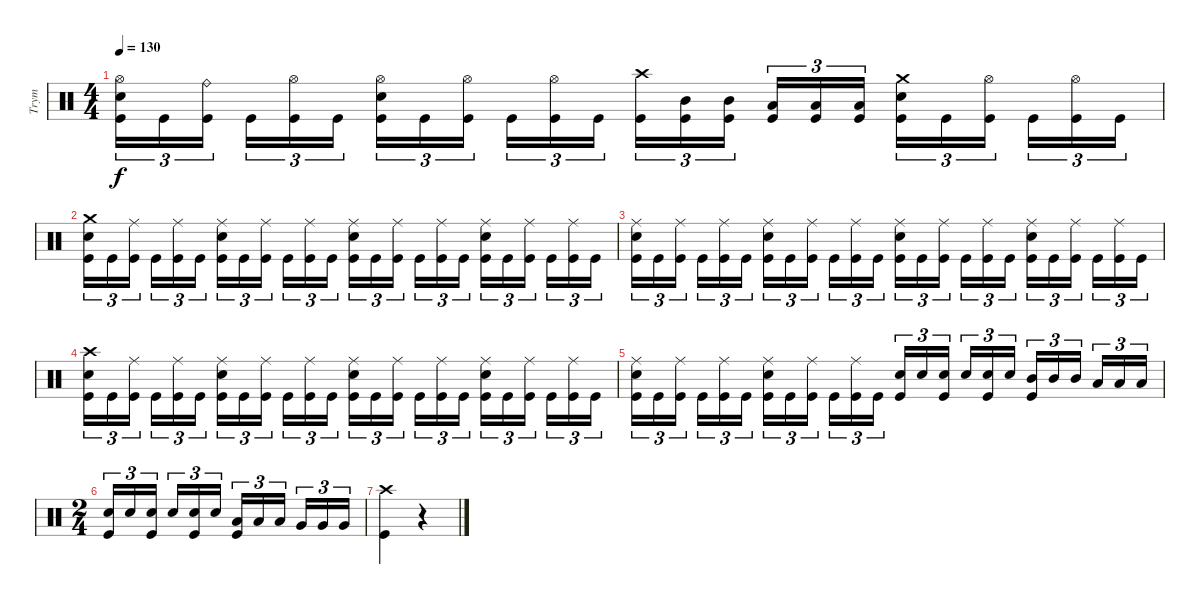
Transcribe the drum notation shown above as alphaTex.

\track ("Trym" "Trym") {instrument percussion}
\staff {score}
\articulation defaults
\ts (4 4)
\tempo 130
\clef neutral
\ks c
("Hi-Hat (open)" "Electric Snare (hit)" "Kick (hit)").16{tu (3 2) dy f} "Kick (hit)".16{tu (3 2)} ("Ride (bell)" "Kick (hit)").16{tu (3 2)} "Kick (hit)".16{tu (3 2)} ("Hi-Hat (open)" "Kick (hit)").16{tu (3 2)} "Kick (hit)".16{tu (3 2)} ("Hi-Hat (open)" "Electric Snare (hit)" "Kick (hit)").16{tu (3 2)} "Kick (hit)".16{tu (3 2)} ("Hi-Hat (open)" "Kick (hit)").16{tu (3 2)} "Kick (hit)".16{tu (3 2)} ("Hi-Hat (open)" "Kick (hit)").16{tu (3 2)} "Kick (hit)".16{tu (3 2)} ("Crash high (hit)" "Kick (hit)").16{tu (3 2)} ("Mid Tom (hit)" "Kick (hit)").16{tu (3 2)} ("Mid Tom (hit)" "Kick (hit)").16{tu (3 2)} ("Low Tom (hit)" "Kick (hit)").16{tu (3 2)} ("Low Tom (hit)" "Kick (hit)").16{tu (3 2)} ("Low Tom (hit)" "Kick (hit)").16{tu (3 2)} ("Crash medium (hit)" "Electric Snare (hit)" "Kick (hit)").16{tu (3 2)} "Kick (hit)".16{tu (3 2)} ("Hi-Hat (open)" "Kick (hit)").16{tu (3 2)} "Kick (hit)".16{tu (3 2)} ("Hi-Hat (open)" "Kick (hit)").16{tu (3 2)} "Kick (hit)".16{tu (3 2)} |
("Crash medium (hit)" "Electric Snare (hit)" "Kick (hit)").16{tu (3 2)} "Kick (hit)".16{tu (3 2)} ("Ride (middle)" "Kick (hit)").16{tu (3 2)} "Kick (hit)".16{tu (3 2)} ("Ride (middle)" "Kick (hit)").16{tu (3 2)} "Kick (hit)".16{tu (3 2)} ("Ride (middle)" "Electric Snare (hit)" "Kick (hit)").16{tu (3 2)} "Kick (hit)".16{tu (3 2)} ("Ride (middle)" "Kick (hit)").16{tu (3 2)} "Kick (hit)".16{tu (3 2)} ("Ride (middle)" "Kick (hit)").16{tu (3 2)} "Kick (hit)".16{tu (3 2)} ("Ride (middle)" "Electric Snare (hit)" "Kick (hit)").16{tu (3 2)} "Kick (hit)".16{tu (3 2)} ("Ride (middle)" "Kick (hit)").16{tu (3 2)} "Kick (hit)".16{tu (3 2)} ("Ride (middle)" "Kick (hit)").16{tu (3 2)} "Kick (hit)".16{tu (3 2)} ("Ride (middle)" "Electric Snare (hit)" "Kick (hit)").16{tu (3 2)} "Kick (hit)".16{tu (3 2)} ("Ride (middle)" "Kick (hit)").16{tu (3 2)} "Kick (hit)".16{tu (3 2)} ("Ride (middle)" "Kick (hit)").16{tu (3 2)} "Kick (hit)".16{tu (3 2)} |
("Ride (middle)" "Electric Snare (hit)" "Kick (hit)").16{tu (3 2)} "Kick (hit)".16{tu (3 2)} ("Ride (middle)" "Kick (hit)").16{tu (3 2)} "Kick (hit)".16{tu (3 2)} ("Ride (middle)" "Kick (hit)").16{tu (3 2)} "Kick (hit)".16{tu (3 2)} ("Ride (middle)" "Electric Snare (hit)" "Kick (hit)").16{tu (3 2)} "Kick (hit)".16{tu (3 2)} ("Ride (middle)" "Kick (hit)").16{tu (3 2)} "Kick (hit)".16{tu (3 2)} ("Ride (middle)" "Kick (hit)").16{tu (3 2)} "Kick (hit)".16{tu (3 2)} ("Ride (middle)" "Electric Snare (hit)" "Kick (hit)").16{tu (3 2)} "Kick (hit)".16{tu (3 2)} ("Ride (middle)" "Kick (hit)").16{tu (3 2)} "Kick (hit)".16{tu (3 2)} ("Ride (middle)" "Kick (hit)").16{tu (3 2)} "Kick (hit)".16{tu (3 2)} ("Ride (middle)" "Electric Snare (hit)" "Kick (hit)").16{tu (3 2)} "Kick (hit)".16{tu (3 2)} ("Ride (middle)" "Kick (hit)").16{tu (3 2)} "Kick (hit)".16{tu (3 2)} ("Ride (middle)" "Kick (hit)").16{tu (3 2)} "Kick (hit)".16{tu (3 2)} |
("Crash high (hit)" "Electric Snare (hit)" "Kick (hit)").16{tu (3 2)} "Kick (hit)".16{tu (3 2)} ("Ride (middle)" "Kick (hit)").16{tu (3 2)} "Kick (hit)".16{tu (3 2)} ("Ride (middle)" "Kick (hit)").16{tu (3 2)} "Kick (hit)".16{tu (3 2)} ("Ride (middle)" "Electric Snare (hit)" "Kick (hit)").16{tu (3 2)} "Kick (hit)".16{tu (3 2)} ("Ride (middle)" "Kick (hit)").16{tu (3 2)} "Kick (hit)".16{tu (3 2)} ("Ride (middle)" "Kick (hit)").16{tu (3 2)} "Kick (hit)".16{tu (3 2)} ("Ride (middle)" "Electric Snare (hit)" "Kick (hit)").16{tu (3 2)} "Kick (hit)".16{tu (3 2)} ("Ride (middle)" "Kick (hit)").16{tu (3 2)} "Kick (hit)".16{tu (3 2)} ("Ride (middle)" "Kick (hit)").16{tu (3 2)} "Kick (hit)".16{tu (3 2)} ("Ride (middle)" "Electric Snare (hit)" "Kick (hit)").16{tu (3 2)} "Kick (hit)".16{tu (3 2)} ("Ride (middle)" "Kick (hit)").16{tu (3 2)} "Kick (hit)".16{tu (3 2)} ("Ride (middle)" "Kick (hit)").16{tu (3 2)} "Kick (hit)".16{tu (3 2)} |
("Ride (middle)" "Electric Snare (hit)" "Kick (hit)").16{tu (3 2)} "Kick (hit)".16{tu (3 2)} ("Ride (middle)" "Kick (hit)").16{tu (3 2)} "Kick (hit)".16{tu (3 2)} ("Ride (middle)" "Kick (hit)").16{tu (3 2)} "Kick (hit)".16{tu (3 2)} ("Ride (middle)" "Electric Snare (hit)" "Kick (hit)").16{tu (3 2)} "Kick (hit)".16{tu (3 2)} ("Ride (middle)" "Kick (hit)").16{tu (3 2)} "Kick (hit)".16{tu (3 2)} ("Ride (middle)" "Kick (hit)").16{tu (3 2)} "Kick (hit)".16{tu (3 2)} ("Electric Snare (hit)" "Kick (hit)").16{tu (3 2)} "Electric Snare (hit)".16{tu (3 2)} ("Electric Snare (hit)" "Kick (hit)").16{tu (3 2)} "Electric Snare (hit)".16{tu (3 2)} ("Electric Snare (hit)" "Kick (hit)").16{tu (3 2)} "Electric Snare (hit)".16{tu (3 2)} ("Mid Tom (hit)" "Kick (hit)").16{tu (3 2)} "Mid Tom (hit)".16{tu (3 2)} "Mid Tom (hit)".16{tu (3 2)} "Low Tom (hit)".16{tu (3 2)} "Low Tom (hit)".16{tu (3 2)} "Low Tom (hit)".16{tu (3 2)} |
\ts (2 4)
("Electric Snare (hit)" "Kick (hit)").16{tu (3 2)} "Electric Snare (hit)".16{tu (3 2)} ("Electric Snare (hit)" "Kick (hit)").16{tu (3 2)} "Electric Snare (hit)".16{tu (3 2)} ("Electric Snare (hit)" "Kick (hit)").16{tu (3 2)} "Electric Snare (hit)".16{tu (3 2)} ("Low Tom (hit)" "Kick (hit)").16{tu (3 2)} "Low Tom (hit)".16{tu (3 2)} "Low Tom (hit)".16{tu (3 2)} "Very Low Tom (hit)".16{tu (3 2)} "Very Low Tom (hit)".16{tu (3 2)} "Very Low Tom (hit)".16{tu (3 2)} |
("Crash high (hit)" "Kick (hit)").4 r.4
